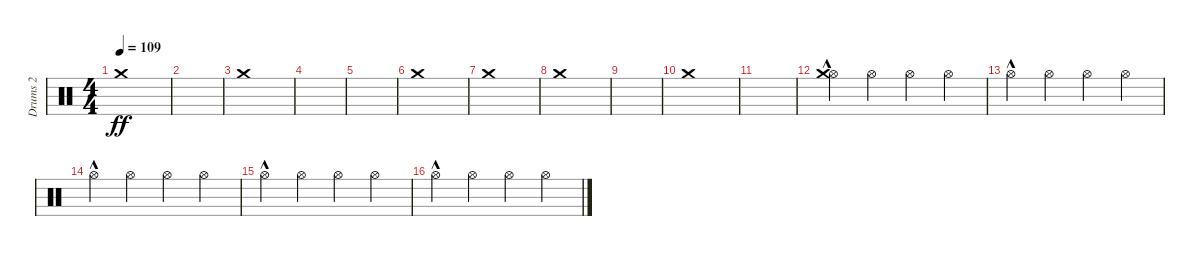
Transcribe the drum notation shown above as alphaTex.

\track ("Drums 2" "Drums 2") {instrument percussion}
\staff {score}
\articulation defaults
\ts (4 4)
\tempo 109
\clef neutral
\ks c "Crash medium (hit)".1{dy ff}
|
|
"Crash medium (hit)".1 |
|
|
"Crash medium (hit)".1 |
"Crash medium (hit)".1 |
"Crash medium (hit)".1 |
|
"Crash medium (hit)".1 |
|
("Hi-Hat (open)"{hac} "Crash medium (hit)"{hac}).4 "Hi-Hat (open)".4 "Hi-Hat (open)".4 "Hi-Hat (open)".4 |
"Hi-Hat (open)"{hac}.4 "Hi-Hat (open)".4 "Hi-Hat (open)".4 "Hi-Hat (open)".4 |
"Hi-Hat (open)"{hac}.4 "Hi-Hat (open)".4 "Hi-Hat (open)".4 "Hi-Hat (open)".4 |
"Hi-Hat (open)"{hac}.4 "Hi-Hat (open)".4 "Hi-Hat (open)".4 "Hi-Hat (open)".4 |
"Hi-Hat (open)"{hac}.4 "Hi-Hat (open)".4 "Hi-Hat (open)".4 "Hi-Hat (open)".4
